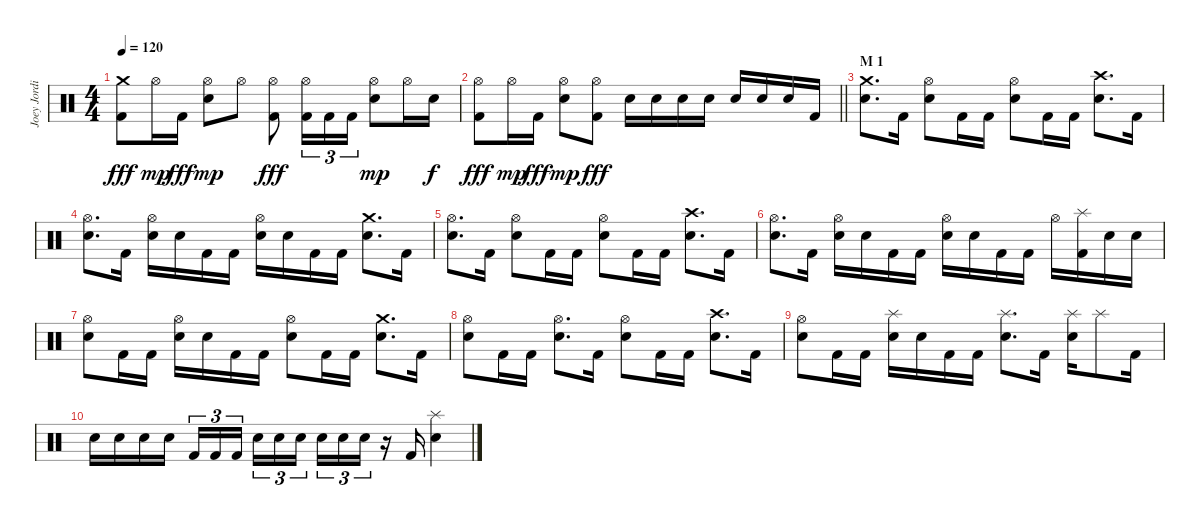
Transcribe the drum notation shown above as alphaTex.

\track ("Joey Jordison" "Joey Jordi") {instrument percussion}
\staff {score}
\articulation defaults
\ts (4 4)
\tempo 120
\clef neutral
\ks c
("Crash medium (hit)" "Kick (hit) 2").8{dy fff} "Hi-Hat (open)".16{dy mp} "Kick (hit) 2".16{dy fff} ("Hi-Hat (open)" "Electric Snare (hit)").8{dy mp} "Hi-Hat (open)".8 ("Hi-Hat (open)" "Kick (hit) 2").8{dy fff} ("Hi-Hat (open)" "Kick (hit) 2").16{tu (3 2)} "Kick (hit) 2".16{tu (3 2)} "Kick (hit) 2".16{tu (3 2)} ("Hi-Hat (open)" "Electric Snare (hit)").8{dy mp} "Hi-Hat (open)".16 "Electric Snare (hit)".16{dy f} |
\barLineRight lightlight
("Hi-Hat (open)" "Kick (hit) 2").8{dy fff} "Hi-Hat (open)".16{dy mp} "Kick (hit) 2".16{dy fff} ("Hi-Hat (open)" "Electric Snare (hit)").8{dy mp} ("Hi-Hat (open)" "Kick (hit) 2").8{dy fff} "Electric Snare (hit)".16 "Electric Snare (hit)".16 "Electric Snare (hit)".16 "Electric Snare (hit)".16 "Electric Snare (hit)".16 "Electric Snare (hit)".16 "Electric Snare (hit)".16 "Kick (hit) 2".16 |
\section ("" "M 1")
("Crash medium (hit)" "Electric Snare (hit)").8{d} "Kick (hit) 2".16 ("Hi-Hat (open)" "Electric Snare (hit)").8 "Kick (hit) 2".16 "Kick (hit) 2".16 ("Hi-Hat (open)" "Electric Snare (hit)").8 "Kick (hit) 2".16 "Kick (hit) 2".16 ("Crash high (hit)" "Electric Snare (hit)").8{d} "Kick (hit) 2".16 |
("Hi-Hat (open)" "Electric Snare (hit)").8{d} "Kick (hit) 2".16 ("Hi-Hat (open)" "Electric Snare (hit)").16 "Electric Snare (hit)".16 "Kick (hit) 2".16 "Kick (hit) 2".16 ("Hi-Hat (open)" "Electric Snare (hit)").16 "Electric Snare (hit)".16 "Kick (hit) 2".16 "Kick (hit) 2".16 ("Crash medium (hit)" "Electric Snare (hit)").8{d} "Kick (hit) 2".16 |
("Hi-Hat (open)" "Electric Snare (hit)").8{d} "Kick (hit) 2".16 ("Hi-Hat (open)" "Electric Snare (hit)").8 "Kick (hit) 2".16 "Kick (hit) 2".16 ("Hi-Hat (open)" "Electric Snare (hit)").8 "Kick (hit) 2".16 "Kick (hit) 2".16 ("Crash high (hit)" "Electric Snare (hit)").8{d} "Kick (hit) 2".16 |
("Hi-Hat (open)" "Electric Snare (hit)").8{d} "Kick (hit) 2".16 ("Hi-Hat (open)" "Electric Snare (hit)").16 "Electric Snare (hit)".16 "Kick (hit) 2".16 "Kick (hit) 2".16 ("Hi-Hat (open)" "Electric Snare (hit)").16 "Electric Snare (hit)".16 "Kick (hit) 2".16 "Kick (hit) 2".16 "Hi-Hat (open)".16 ("Splash (hit)" "Kick (hit) 2").16 "Electric Snare (hit)".16 "Electric Snare (hit)".16 |
("Hi-Hat (open)" "Electric Snare (hit)").8 "Kick (hit) 2".16 "Kick (hit) 2".16 ("Hi-Hat (open)" "Electric Snare (hit)").16 "Electric Snare (hit)".16 "Kick (hit) 2".16 "Kick (hit) 2".16 ("Hi-Hat (open)" "Electric Snare (hit)").8 "Kick (hit) 2".16 "Kick (hit) 2".16 ("Crash medium (hit)" "Electric Snare (hit)").8{d} "Kick (hit) 2".16 |
("Hi-Hat (open)" "Electric Snare (hit)").8 "Kick (hit) 2".16 "Kick (hit) 2".16 ("Hi-Hat (open)" "Electric Snare (hit)").8{d} "Kick (hit) 2".16 ("Hi-Hat (open)" "Electric Snare (hit)").8 "Kick (hit) 2".16 "Kick (hit) 2".16 ("Crash high (hit)" "Electric Snare (hit)").8{d} "Kick (hit) 2".16 |
("Hi-Hat (open)" "Electric Snare (hit)").8 "Kick (hit) 2".16 "Kick (hit) 2".16 ("Splash (hit)" "Electric Snare (hit)").16 "Electric Snare (hit)".16 "Kick (hit) 2".16 "Kick (hit) 2".16 ("Splash (hit)" "Electric Snare (hit)").8{d} "Kick (hit) 2".16 ("Splash (hit)" "Electric Snare (hit)").16 "Splash (hit)".8 "Kick (hit) 2".16 |
"Electric Snare (hit)".16 "Electric Snare (hit)".16 "Electric Snare (hit)".16 "Electric Snare (hit)".16 "Kick (hit) 2".16{tu (3 2)} "Kick (hit) 2".16{tu (3 2)} "Kick (hit) 2".16{tu (3 2) beam splitsecondary} "Electric Snare (hit)".16{tu (3 2)} "Electric Snare (hit)".16{tu (3 2)} "Electric Snare (hit)".16{tu (3 2)} "Electric Snare (hit)".16{tu (3 2)} "Electric Snare (hit)".16{tu (3 2)} "Electric Snare (hit)".16{tu (3 2)} r.16 "Kick (hit) 2".16 ("Splash (hit)" "Electric Snare (hit)").4
